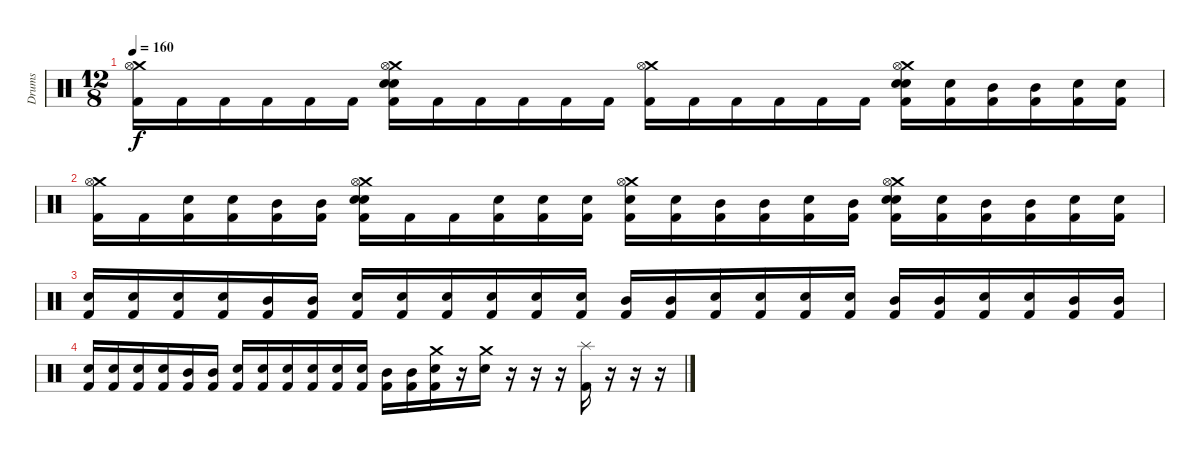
\track ("Drums" "Drums") {instrument percussion}
\staff {score}
\articulation defaults
\ts (12 8)
\tempo 160
\clef neutral
\ks c
("Crash medium (hit)" "Hi-Hat (open)" "Kick (hit) 2").16{dy f volume 16} "Kick (hit) 2".16 "Kick (hit) 2".16 "Kick (hit) 2".16 "Kick (hit) 2".16 "Kick (hit) 2".16 ("Crash medium (hit)" "Hi-Hat (open)" "Electric Snare (hit)" "Electric Snare (hit)" "Kick (hit) 2").16 "Kick (hit) 2".16 "Kick (hit) 2".16 "Kick (hit) 2".16 "Kick (hit) 2".16 "Kick (hit) 2".16 ("Crash medium (hit)" "Hi-Hat (open)" "Kick (hit) 2").16 "Kick (hit) 2".16 "Kick (hit) 2".16 "Kick (hit) 2".16 "Kick (hit) 2".16 "Kick (hit) 2".16 ("Crash medium (hit)" "Hi-Hat (open)" "Electric Snare (hit)" "Electric Snare (hit)" "Kick (hit) 2").16 ("Electric Snare (hit)" "Kick (hit) 2").16 ("Mid Tom (hit)" "Kick (hit) 2").16 ("Mid Tom (hit)" "Kick (hit) 2").16 ("Electric Snare (hit)" "Kick (hit) 2").16 ("Electric Snare (hit)" "Kick (hit) 2").16 |
("Crash medium (hit)" "Hi-Hat (open)" "Kick (hit) 2").16{volume 16} "Kick (hit) 2".16 ("Electric Snare (hit)" "Kick (hit) 2").16 ("Electric Snare (hit)" "Kick (hit) 2").16 ("Mid Tom (hit)" "Kick (hit) 2").16 ("Mid Tom (hit)" "Kick (hit) 2").16 ("Crash medium (hit)" "Hi-Hat (open)" "Electric Snare (hit)" "Electric Snare (hit)" "Kick (hit) 2").16 "Kick (hit) 2".16 "Kick (hit) 2".16 ("Electric Snare (hit)" "Kick (hit) 2").16 ("Electric Snare (hit)" "Kick (hit) 2").16 ("Electric Snare (hit)" "Kick (hit) 2").16 ("Crash medium (hit)" "Hi-Hat (open)" "Electric Snare (hit)" "Kick (hit) 2").16 ("Electric Snare (hit)" "Kick (hit) 2").16 ("Mid Tom (hit)" "Kick (hit) 2").16 ("Mid Tom (hit)" "Kick (hit) 2").16 ("Electric Snare (hit)" "Kick (hit) 2").16 ("Mid Tom (hit)" "Kick (hit) 2").16 ("Crash medium (hit)" "Hi-Hat (open)" "Electric Snare (hit)" "Electric Snare (hit)" "Kick (hit) 2").16 ("Electric Snare (hit)" "Kick (hit) 2").16 ("Mid Tom (hit)" "Kick (hit) 2").16 ("Mid Tom (hit)" "Kick (hit) 2").16 ("Electric Snare (hit)" "Kick (hit) 2").16 ("Electric Snare (hit)" "Kick (hit) 2").16 |
("Electric Snare (hit)" "Kick (hit) 2").16{volume 16} ("Electric Snare (hit)" "Kick (hit) 2").16 ("Electric Snare (hit)" "Kick (hit) 2").16 ("Electric Snare (hit)" "Kick (hit) 2").16 ("Mid Tom (hit)" "Kick (hit) 2").16 ("Mid Tom (hit)" "Kick (hit) 2").16 ("Electric Snare (hit)" "Kick (hit) 2").16 ("Electric Snare (hit)" "Kick (hit) 2").16 ("Electric Snare (hit)" "Kick (hit) 2").16 ("Electric Snare (hit)" "Kick (hit) 2").16 ("Electric Snare (hit)" "Kick (hit) 2").16 ("Electric Snare (hit)" "Kick (hit) 2").16 ("Mid Tom (hit)" "Kick (hit) 2").16 ("Mid Tom (hit)" "Kick (hit) 2").16 ("Electric Snare (hit)" "Kick (hit) 2").16 ("Electric Snare (hit)" "Kick (hit) 2").16 ("Electric Snare (hit)" "Kick (hit) 2").16 ("Electric Snare (hit)" "Kick (hit) 2").16 ("Mid Tom (hit)" "Kick (hit) 2").16 ("Mid Tom (hit)" "Kick (hit) 2").16 ("Electric Snare (hit)" "Kick (hit) 2").16 ("Electric Snare (hit)" "Kick (hit) 2").16 ("Mid Tom (hit)" "Kick (hit) 2").16 ("Mid Tom (hit)" "Kick (hit) 2").16 |
("Electric Snare (hit)" "Kick (hit) 2").16{volume 16} ("Electric Snare (hit)" "Kick (hit) 2").16 ("Electric Snare (hit)" "Kick (hit) 2").16 ("Electric Snare (hit)" "Kick (hit) 2").16 ("Mid Tom (hit)" "Kick (hit) 2").16 ("Mid Tom (hit)" "Kick (hit) 2").16 ("Electric Snare (hit)" "Kick (hit) 2").16 ("Electric Snare (hit)" "Kick (hit) 2").16 ("Electric Snare (hit)" "Kick (hit) 2").16 ("Electric Snare (hit)" "Kick (hit) 2").16 ("Electric Snare (hit)" "Kick (hit) 2").16 ("Electric Snare (hit)" "Kick (hit) 2").16 ("Mid Tom (hit)" "Kick (hit) 2").16 ("Mid Tom (hit)" "Kick (hit) 2").16 ("Electric Snare (hit)" "Crash medium (hit)" "Kick (hit) 2").16 r.16 ("Crash medium (hit)" "Electric Snare (hit)").16 r.16 r.16 r.16 ("Splash (hit)" "Kick (hit) 2").16 r.16 r.16 r.16
